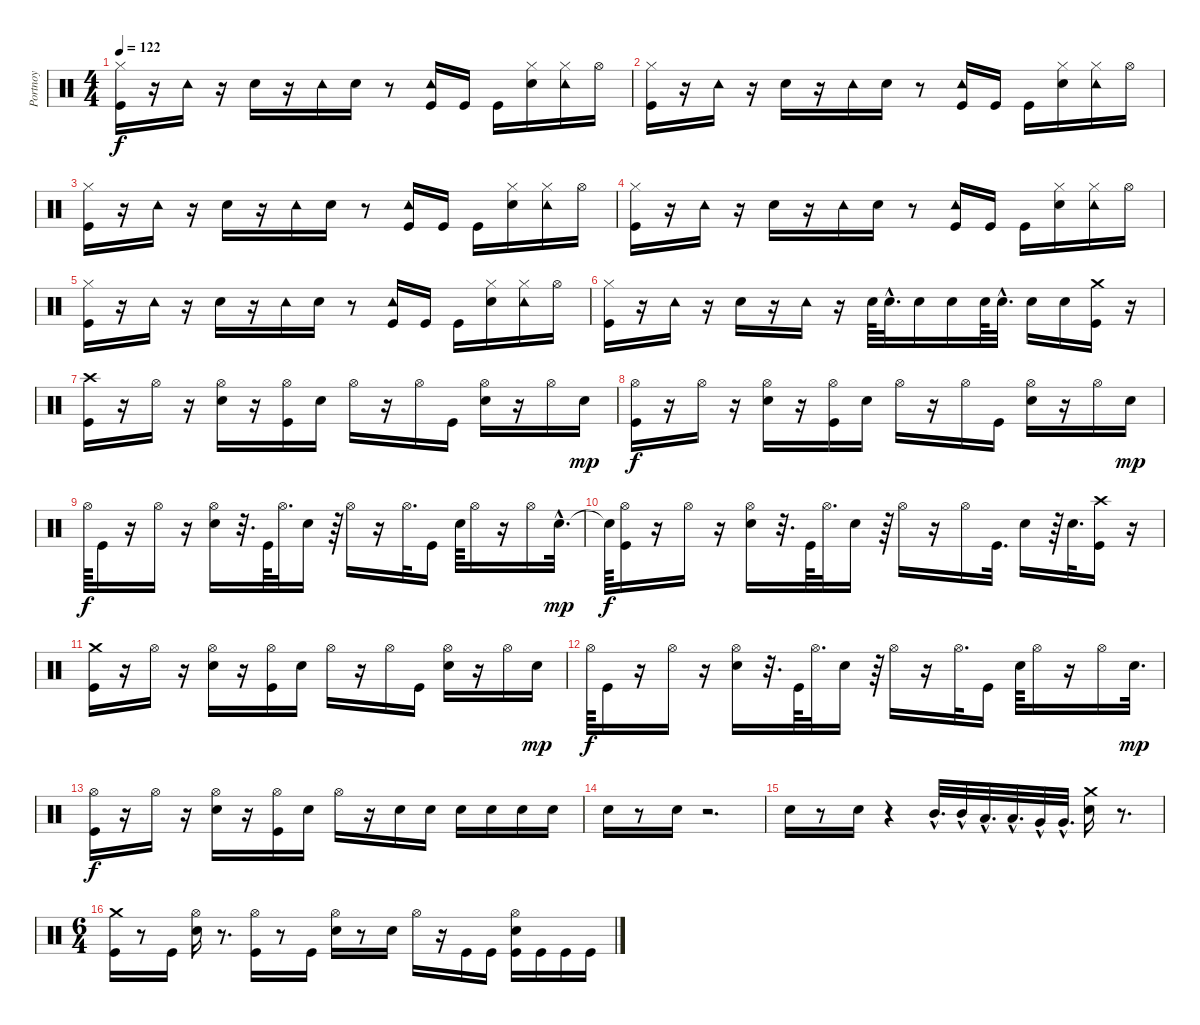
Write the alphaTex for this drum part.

\track ("Portnoy" "Portnoy") {instrument percussion}
\staff {score}
\articulation defaults
\ts (4 4)
\tempo 122
\clef neutral
\ks c
("Hi-Hat (closed)" "Kick (hit)").16{dy f} r.16 "Tambourine (hit)".16 r.16 "Metronome (bell)".16 r.16 "Tambourine (hit)".16 "Metronome (bell)".16 r.8 ("Tambourine (hit)" "Kick (hit)").16 "Kick (hit)".16 "Kick (hit)".16 ("Hi-Hat (closed)" "Metronome (bell)").16 ("Tambourine (hit)" "Hi-Hat (closed)").16 "Hi-Hat (open)".16 |
("Hi-Hat (closed)" "Kick (hit)").16 r.16 "Tambourine (hit)".16 r.16 "Metronome (bell)".16 r.16 "Tambourine (hit)".16 "Metronome (bell)".16 r.8 ("Tambourine (hit)" "Kick (hit)").16 "Kick (hit)".16 "Kick (hit)".16 ("Hi-Hat (closed)" "Metronome (bell)").16 ("Tambourine (hit)" "Hi-Hat (closed)").16 "Hi-Hat (open)".16 |
("Hi-Hat (closed)" "Kick (hit)").16 r.16 "Tambourine (hit)".16 r.16 "Metronome (bell)".16 r.16 "Tambourine (hit)".16 "Metronome (bell)".16 r.8 ("Tambourine (hit)" "Kick (hit)").16 "Kick (hit)".16 "Kick (hit)".16 ("Hi-Hat (closed)" "Metronome (bell)").16 ("Tambourine (hit)" "Hi-Hat (closed)").16 "Hi-Hat (open)".16 |
("Hi-Hat (closed)" "Kick (hit)").16 r.16 "Tambourine (hit)".16 r.16 "Metronome (bell)".16 r.16 "Tambourine (hit)".16 "Metronome (bell)".16 r.8 ("Tambourine (hit)" "Kick (hit)").16 "Kick (hit)".16 "Kick (hit)".16 ("Hi-Hat (closed)" "Metronome (bell)").16 ("Tambourine (hit)" "Hi-Hat (closed)").16 "Hi-Hat (open)".16 |
("Hi-Hat (closed)" "Kick (hit)").16 r.16 "Tambourine (hit)".16 r.16 "Metronome (bell)".16 r.16 "Tambourine (hit)".16 "Metronome (bell)".16 r.8 ("Tambourine (hit)" "Kick (hit)").16 "Kick (hit)".16 "Kick (hit)".16 ("Hi-Hat (closed)" "Metronome (bell)").16 ("Tambourine (hit)" "Hi-Hat (closed)").16 "Hi-Hat (open)".16 |
("Hi-Hat (closed)" "Kick (hit)").16 r.16 "Tambourine (hit)".16 r.16 "Metronome (bell)".16 r.16 "Tambourine (hit)".16 r.16 "Metronome (bell)".64 "Metronome (bell)"{hac}.32{d} "Metronome (bell)".16 "Metronome (bell)".16 "Metronome (bell)".64 "Metronome (bell)"{hac}.32{d} "Metronome (bell)".16 "Metronome (bell)".16 ("Crash medium (hit)" "Kick (hit)").16 r.16 |
("Crash high (hit)" "Kick (hit)").16 r.16 "Hi-Hat (open)".16 r.16 ("Metronome (bell)" "Hi-Hat (open)").16 r.16 ("Kick (hit)" "Hi-Hat (open)").16 "Metronome (bell)".16 "Hi-Hat (open)".16 r.16 "Hi-Hat (open)".16 "Kick (hit)".16 ("Metronome (bell)" "Hi-Hat (open)").16 r.16 "Hi-Hat (open)".16 "Metronome (bell)".16{dy mp} |
("Hi-Hat (open)" "Kick (hit)").16{dy f} r.16 "Hi-Hat (open)".16 r.16 ("Metronome (bell)" "Hi-Hat (open)").16 r.16 ("Kick (hit)" "Hi-Hat (open)").16 "Metronome (bell)".16 "Hi-Hat (open)".16 r.16 "Hi-Hat (open)".16 "Kick (hit)".16 ("Metronome (bell)" "Hi-Hat (open)").16 r.16 "Hi-Hat (open)".16 "Metronome (bell)".16{dy mp} |
"Hi-Hat (open)".64{dy f} "Kick (hit)".16 r.16 "Hi-Hat (open)".16 r.16 ("Metronome (bell)" "Hi-Hat (open)").16 r.32{d} "Kick (hit)".64 "Hi-Hat (open)".32{d} "Metronome (bell)".16 r.64 "Hi-Hat (open)".16 r.16 "Hi-Hat (open)".32{d} "Kick (hit)".16 "Metronome (bell)".64 "Hi-Hat (open)".16 r.16 "Hi-Hat (open)".16 "Metronome (bell)"{hac}.32{d dy mp} |
"Snare (hit)"{t}.64{dy f} ("Hi-Hat (open)" "Kick (hit)").16 r.16 "Hi-Hat (open)".16 r.16 ("Metronome (bell)" "Hi-Hat (open)").16 r.32{d} "Kick (hit)".64 "Hi-Hat (open)".32{d} "Metronome (bell)".16 r.64 "Hi-Hat (open)".16 r.16 "Hi-Hat (open)".16 "Kick (hit)".32{d} "Metronome (bell)".16 r.64 "Metronome (bell)".32{d} ("Kick (hit)" "Crash high (hit)").16 r.16 |
("Crash medium (hit)" "Kick (hit)").16 r.16 "Hi-Hat (open)".16 r.16 ("Metronome (bell)" "Hi-Hat (open)").16 r.16 ("Kick (hit)" "Hi-Hat (open)").16 "Metronome (bell)".16 "Hi-Hat (open)".16 r.16 "Hi-Hat (open)".16 "Kick (hit)".16 ("Metronome (bell)" "Hi-Hat (open)").16 r.16 "Hi-Hat (open)".16 "Metronome (bell)".16{dy mp} |
"Hi-Hat (open)".64{dy f} "Kick (hit)".16 r.16 "Hi-Hat (open)".16 r.16 ("Metronome (bell)" "Hi-Hat (open)").16 r.32{d} "Kick (hit)".64 "Hi-Hat (open)".32{d} "Metronome (bell)".16 r.64 "Hi-Hat (open)".16 r.16 "Hi-Hat (open)".32{d} "Kick (hit)".16 "Metronome (bell)".64 "Hi-Hat (open)".16 r.16 "Hi-Hat (open)".16 "Metronome (bell)".32{d dy mp} |
("Kick (hit)" "Hi-Hat (open)").16{dy f} r.16 "Hi-Hat (open)".16 r.16 ("Metronome (bell)" "Hi-Hat (open)").16 r.16 ("Kick (hit)" "Hi-Hat (open)").16 "Metronome (bell)".16 "Hi-Hat (open)".16 r.16 "Metronome (bell)".16 "Metronome (bell)".16 "Metronome (bell)".16 "Metronome (bell)".16 "Metronome (bell)".16 "Metronome (bell)".16 |
"Metronome (bell)".16 r.8 "Metronome (bell)".16 r.2{d} |
"Metronome (bell)".16 r.8 "Metronome (bell)".16 r.4 "Mid Tom (hit)"{hac}.32{d} "Mid Tom (hit)"{hac}.32 "Low Tom (hit)"{hac}.32{d} "Low Tom (hit)"{hac}.32{d} "Very Low Tom (hit)"{hac}.32 "Very Low Tom (hit)"{hac}.32{d} ("Crash medium (hit)" "Metronome (bell)").16 r.8{d} |
\ts (6 4)
("Kick (hit)" "Crash medium (hit)").16 r.8 "Kick (hit)".16 ("Metronome (bell)" "Hi-Hat (open)").16 r.8{d} ("Kick (hit)" "Hi-Hat (open)").16 r.8 "Kick (hit)".16 ("Metronome (bell)" "Hi-Hat (open)").16 r.8 "Metronome (bell)".16 "Hi-Hat (open)".16 r.16 "Kick (hit)".16 "Kick (hit)".16 ("Kick (hit)" "Metronome (bell)" "Hi-Hat (open)").16 "Kick (hit)".16 "Kick (hit)".16 "Kick (hit)".16
